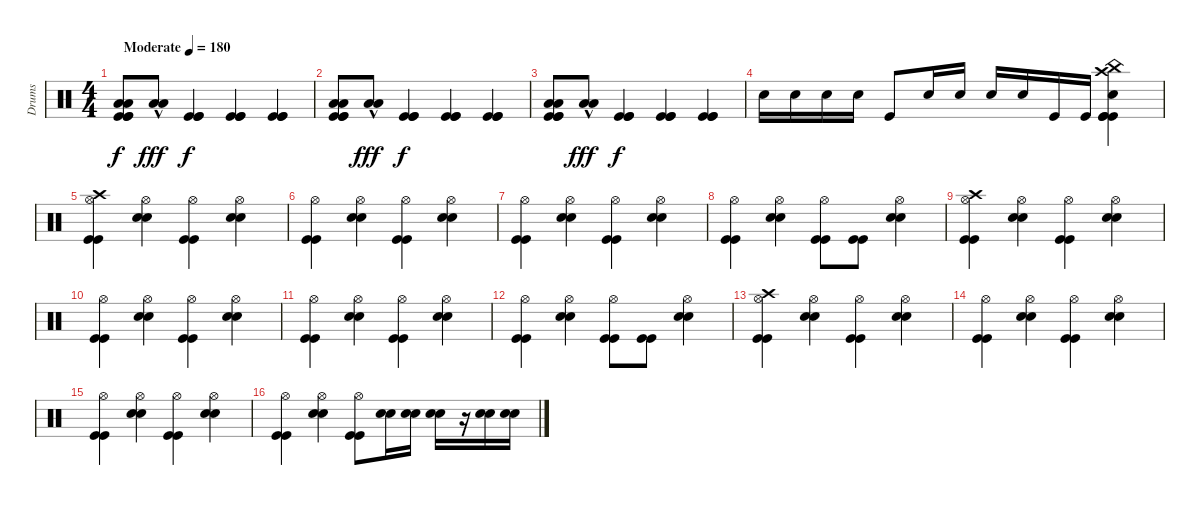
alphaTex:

\track ("Drums" "Drums") {instrument percussion}
\staff {score}
\articulation defaults
\ts (4 4)
\tempo (180 "Moderate")
\clef neutral
\ks c
("Kick (hit)" "Low Floor Tom (hit)" "Low Tom (hit)" "Kick (hit)" "Kick (hit)").8{dy f} ("Low Floor Tom (hit)"{hac} "Low Tom (hit)").8{dy fff} ("Kick (hit)" "Kick (hit)" "Kick (hit)").4{dy f} ("Kick (hit)" "Kick (hit)" "Kick (hit)").4 ("Kick (hit)" "Kick (hit)" "Kick (hit)").4 |
("Kick (hit)" "Low Floor Tom (hit)" "Low Tom (hit)" "Kick (hit)" "Kick (hit)").8 ("Low Floor Tom (hit)"{hac} "Low Tom (hit)").8{dy fff} ("Kick (hit)" "Kick (hit)" "Kick (hit)").4{dy f} ("Kick (hit)" "Kick (hit)" "Kick (hit)").4 ("Kick (hit)" "Kick (hit)" "Kick (hit)").4 |
("Kick (hit)" "Low Floor Tom (hit)" "Low Tom (hit)" "Kick (hit)" "Kick (hit)").8 ("Low Floor Tom (hit)"{hac} "Low Tom (hit)").8{dy fff} ("Kick (hit)" "Kick (hit)" "Kick (hit)").4{dy f} ("Kick (hit)" "Kick (hit)" "Kick (hit)").4 ("Kick (hit)" "Kick (hit)" "Kick (hit)").4 |
"Snare (hit) 2".16 "Snare (hit) 2".16 "Snare (hit) 2".16 "Snare (hit) 2".16 "Kick (hit)".8 "Snare (hit) 2".16 "Snare (hit) 2".16 "Snare (hit) 2".16 "Snare (hit) 2".16 "Kick (hit)".16 "Kick (hit)".16 ("Snare (hit) 2" "Kick (hit)" "China (hit)" "Crash high (hit)" "Kick (hit)" "Kick (hit)").4 |
("Kick (hit)" "Kick (hit)" "Hi-Hat (open)" "Crash high (hit)").4 ("Snare (hit) 2" "Snare (hit) 2" "Hi-Hat (open)").4 ("Kick (hit)" "Kick (hit)" "Hi-Hat (open)").4 ("Snare (hit) 2" "Snare (hit) 2" "Hi-Hat (open)").4 |
("Kick (hit)" "Kick (hit)" "Hi-Hat (open)").4 ("Snare (hit) 2" "Snare (hit) 2" "Hi-Hat (open)").4 ("Kick (hit)" "Kick (hit)" "Hi-Hat (open)").4 ("Snare (hit) 2" "Snare (hit) 2" "Hi-Hat (open)").4 |
("Kick (hit)" "Kick (hit)" "Hi-Hat (open)").4 ("Snare (hit) 2" "Snare (hit) 2" "Hi-Hat (open)").4 ("Kick (hit)" "Kick (hit)" "Hi-Hat (open)").4 ("Snare (hit) 2" "Snare (hit) 2" "Hi-Hat (open)").4 |
("Kick (hit)" "Kick (hit)" "Hi-Hat (open)").4 ("Snare (hit) 2" "Snare (hit) 2" "Hi-Hat (open)").4 ("Kick (hit)" "Kick (hit)" "Hi-Hat (open)").8 ("Kick (hit)" "Kick (hit)").8 ("Snare (hit) 2" "Snare (hit) 2" "Hi-Hat (open)").4 |
("Kick (hit)" "Kick (hit)" "Hi-Hat (open)" "Crash high (hit)").4 ("Snare (hit) 2" "Snare (hit) 2" "Hi-Hat (open)").4 ("Kick (hit)" "Kick (hit)" "Hi-Hat (open)").4 ("Snare (hit) 2" "Snare (hit) 2" "Hi-Hat (open)").4 |
("Kick (hit)" "Kick (hit)" "Hi-Hat (open)").4 ("Snare (hit) 2" "Snare (hit) 2" "Hi-Hat (open)").4 ("Kick (hit)" "Kick (hit)" "Hi-Hat (open)").4 ("Snare (hit) 2" "Snare (hit) 2" "Hi-Hat (open)").4 |
("Kick (hit)" "Kick (hit)" "Hi-Hat (open)").4 ("Snare (hit) 2" "Snare (hit) 2" "Hi-Hat (open)").4 ("Kick (hit)" "Kick (hit)" "Hi-Hat (open)").4 ("Snare (hit) 2" "Snare (hit) 2" "Hi-Hat (open)").4 |
("Kick (hit)" "Kick (hit)" "Hi-Hat (open)").4 ("Snare (hit) 2" "Snare (hit) 2" "Hi-Hat (open)").4 ("Kick (hit)" "Kick (hit)" "Hi-Hat (open)").8 ("Kick (hit)" "Kick (hit)").8 ("Snare (hit) 2" "Snare (hit) 2" "Hi-Hat (open)").4 |
("Kick (hit)" "Kick (hit)" "Hi-Hat (open)" "Crash high (hit)").4 ("Snare (hit) 2" "Snare (hit) 2" "Hi-Hat (open)").4 ("Kick (hit)" "Kick (hit)" "Hi-Hat (open)").4 ("Snare (hit) 2" "Snare (hit) 2" "Hi-Hat (open)").4 |
("Kick (hit)" "Kick (hit)" "Hi-Hat (open)").4 ("Snare (hit) 2" "Snare (hit) 2" "Hi-Hat (open)").4 ("Kick (hit)" "Kick (hit)" "Hi-Hat (open)").4 ("Snare (hit) 2" "Snare (hit) 2" "Hi-Hat (open)").4 |
("Kick (hit)" "Kick (hit)" "Hi-Hat (open)").4 ("Snare (hit) 2" "Snare (hit) 2" "Hi-Hat (open)").4 ("Kick (hit)" "Kick (hit)" "Hi-Hat (open)").4 ("Snare (hit) 2" "Snare (hit) 2" "Hi-Hat (open)").4 |
("Kick (hit)" "Kick (hit)" "Hi-Hat (open)").4 ("Snare (hit) 2" "Snare (hit) 2" "Hi-Hat (open)").4 ("Kick (hit)" "Kick (hit)" "Hi-Hat (open)").8 ("Snare (hit) 2" "Snare (hit) 2").16 ("Snare (hit) 2" "Snare (hit) 2").16 ("Snare (hit) 2" "Snare (hit) 2").16 r.16 ("Snare (hit) 2" "Snare (hit) 2").16 ("Snare (hit) 2" "Snare (hit) 2").16
